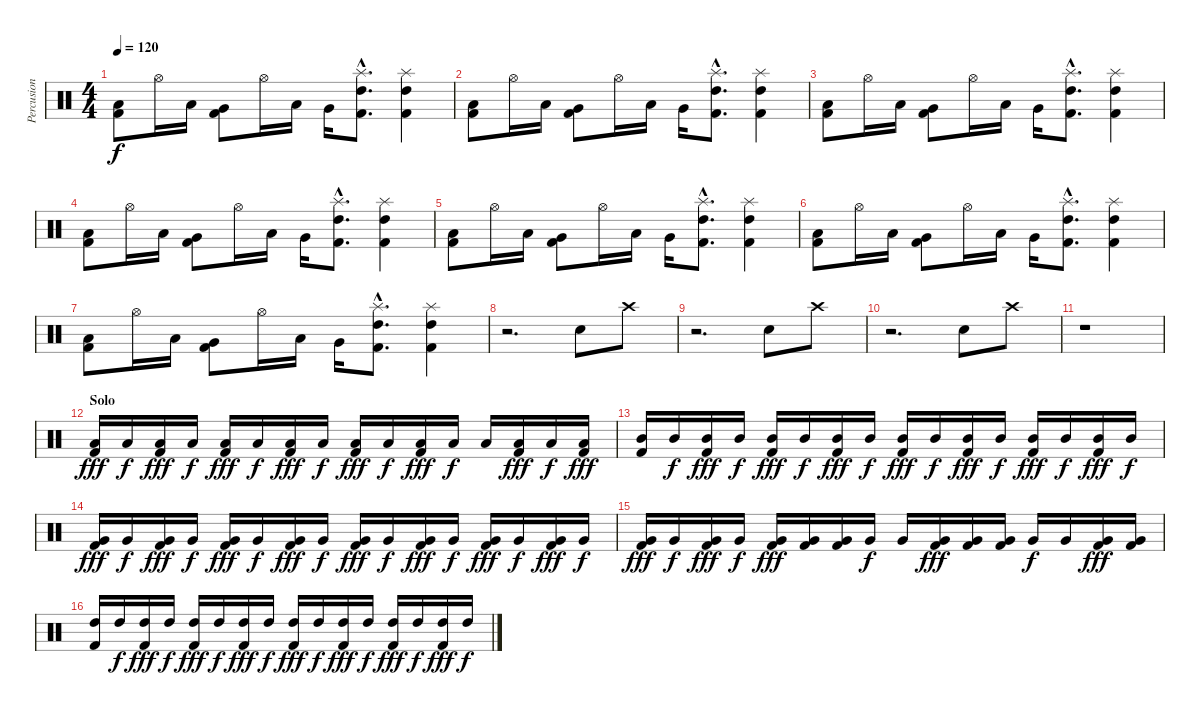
\track ("Percusion" "Percusion") {instrument percussion}
\staff {score}
\articulation defaults
\ts (4 4)
\tempo 120
\clef neutral
\ks c
("Low Tom (hit)" "Kick (hit) 2").8{dy f} "Hi-Hat (open)".16 "Low Tom (hit)".16 ("Very Low Tom (hit)" "Kick (hit) 2").8 "Hi-Hat (open)".16 "Low Tom (hit)".16 "Very Low Tom (hit)".16 ("High Tom (hit)"{hac} "Splash (hit)"{hac} "Kick (hit) 2"{hac}).8{d} ("High Tom (hit)" "Splash (hit)" "Kick (hit) 2").4 |
("Low Tom (hit)" "Kick (hit) 2").8 "Hi-Hat (open)".16 "Low Tom (hit)".16 ("Very Low Tom (hit)" "Kick (hit) 2").8 "Hi-Hat (open)".16 "Low Tom (hit)".16 "Very Low Tom (hit)".16 ("High Tom (hit)"{hac} "Splash (hit)"{hac} "Kick (hit) 2"{hac}).8{d} ("High Tom (hit)" "Splash (hit)" "Kick (hit) 2").4 |
("Low Tom (hit)" "Kick (hit) 2").8 "Hi-Hat (open)".16 "Low Tom (hit)".16 ("Very Low Tom (hit)" "Kick (hit) 2").8 "Hi-Hat (open)".16 "Low Tom (hit)".16 "Very Low Tom (hit)".16 ("High Tom (hit)"{hac} "Splash (hit)"{hac} "Kick (hit) 2"{hac}).8{d} ("High Tom (hit)" "Splash (hit)" "Kick (hit) 2").4 |
("Low Tom (hit)" "Kick (hit) 2").8 "Hi-Hat (open)".16 "Low Tom (hit)".16 ("Very Low Tom (hit)" "Kick (hit) 2").8 "Hi-Hat (open)".16 "Low Tom (hit)".16 "Very Low Tom (hit)".16 ("High Tom (hit)"{hac} "Splash (hit)"{hac} "Kick (hit) 2"{hac}).8{d} ("High Tom (hit)" "Splash (hit)" "Kick (hit) 2").4 |
("Low Tom (hit)" "Kick (hit) 2").8 "Hi-Hat (open)".16 "Low Tom (hit)".16 ("Very Low Tom (hit)" "Kick (hit) 2").8 "Hi-Hat (open)".16 "Low Tom (hit)".16 "Very Low Tom (hit)".16 ("High Tom (hit)"{hac} "Splash (hit)"{hac} "Kick (hit) 2"{hac}).8{d} ("High Tom (hit)" "Splash (hit)" "Kick (hit) 2").4 |
("Low Tom (hit)" "Kick (hit) 2").8 "Hi-Hat (open)".16 "Low Tom (hit)".16 ("Very Low Tom (hit)" "Kick (hit) 2").8 "Hi-Hat (open)".16 "Low Tom (hit)".16 "Very Low Tom (hit)".16 ("High Tom (hit)"{hac} "Splash (hit)"{hac} "Kick (hit) 2"{hac}).8{d} ("High Tom (hit)" "Splash (hit)" "Kick (hit) 2").4 |
("Low Tom (hit)" "Kick (hit) 2").8 "Hi-Hat (open)".16 "Low Tom (hit)".16 ("Very Low Tom (hit)" "Kick (hit) 2").8 "Hi-Hat (open)".16 "Low Tom (hit)".16 "Very Low Tom (hit)".16 ("High Tom (hit)"{hac} "Splash (hit)"{hac} "Kick (hit) 2"{hac}).8{d} ("High Tom (hit)" "Splash (hit)" "Kick (hit) 2").4 |
r.2{d} "Snare (hit) 2".8 "Crash high (hit)".8 |
r.2{d} "Snare (hit) 2".8 "Crash high (hit)".8 |
r.2{d} "Snare (hit) 2".8 "Crash high (hit)".8 |
r.1 |
\section ("" "Solo")
("Low Tom (hit)" "Kick (hit) 2").16{dy fff} "Low Tom (hit)".16{dy f} ("Low Tom (hit)" "Kick (hit) 2").16{dy fff} "Low Tom (hit)".16{dy f} ("Low Tom (hit)" "Kick (hit) 2").16{dy fff} "Low Tom (hit)".16{dy f} ("Low Tom (hit)" "Kick (hit) 2").16{dy fff} "Low Tom (hit)".16{dy f} ("Low Tom (hit)" "Kick (hit) 2").16{dy fff} "Low Tom (hit)".16{dy f} ("Low Tom (hit)" "Kick (hit) 2").16{dy fff} "Low Tom (hit)".16{dy f} "Low Tom (hit)".16 ("Low Tom (hit)" "Kick (hit) 2").16{dy fff} "Low Tom (hit)".16{dy f} ("Low Tom (hit)" "Kick (hit) 2").16{dy fff} |
("Mid Tom (hit)" "Kick (hit) 2").16 "Mid Tom (hit)".16{dy f} ("Mid Tom (hit)" "Kick (hit) 2").16{dy fff} "Mid Tom (hit)".16{dy f} ("Mid Tom (hit)" "Kick (hit) 2").16{dy fff} "Mid Tom (hit)".16{dy f} ("Mid Tom (hit)" "Kick (hit) 2").16{dy fff} "Mid Tom (hit)".16{dy f} ("Mid Tom (hit)" "Kick (hit) 2").16{dy fff} "Mid Tom (hit)".16{dy f} ("Mid Tom (hit)" "Kick (hit) 2").16{dy fff} "Mid Tom (hit)".16{dy f} ("Mid Tom (hit)" "Kick (hit) 2").16{dy fff} "Mid Tom (hit)".16{dy f} ("Mid Tom (hit)" "Kick (hit) 2").16{dy fff} "Mid Tom (hit)".16{dy f} |
("Very Low Tom (hit)" "Kick (hit) 2").16{dy fff} "Very Low Tom (hit)".16{dy f} ("Very Low Tom (hit)" "Kick (hit) 2").16{dy fff} "Very Low Tom (hit)".16{dy f} ("Very Low Tom (hit)" "Kick (hit) 2").16{dy fff} "Very Low Tom (hit)".16{dy f} ("Very Low Tom (hit)" "Kick (hit) 2").16{dy fff} "Very Low Tom (hit)".16{dy f} ("Very Low Tom (hit)" "Kick (hit) 2").16{dy fff} "Very Low Tom (hit)".16{dy f} ("Very Low Tom (hit)" "Kick (hit) 2").16{dy fff} "Very Low Tom (hit)".16{dy f} ("Very Low Tom (hit)" "Kick (hit) 2").16{dy fff} "Very Low Tom (hit)".16{dy f} ("Very Low Tom (hit)" "Kick (hit) 2").16{dy fff} "Very Low Tom (hit)".16{dy f} |
("Very Low Tom (hit)" "Kick (hit) 2").16{dy fff} "Very Low Tom (hit)".16{dy f} ("Very Low Tom (hit)" "Kick (hit) 2").16{dy fff} "Very Low Tom (hit)".16{dy f} ("Very Low Tom (hit)" "Kick (hit) 2").16{dy fff} ("Very Low Tom (hit)" "Kick (hit) 2").16 ("Very Low Tom (hit)" "Kick (hit) 2").16 "Very Low Tom (hit)".16{dy f} "Very Low Tom (hit)".16 ("Very Low Tom (hit)" "Kick (hit) 2").16{dy fff} ("Very Low Tom (hit)" "Kick (hit) 2").16 ("Very Low Tom (hit)" "Kick (hit) 2").16 "Very Low Tom (hit)".16{dy f} "Very Low Tom (hit)".16 ("Very Low Tom (hit)" "Kick (hit) 2").16{dy fff} ("Very Low Tom (hit)" "Kick (hit) 2").16 |
("High Tom (hit)" "Kick (hit) 2").16 "High Tom (hit)".16{dy f} ("High Tom (hit)" "Kick (hit) 2").16{dy fff} "High Tom (hit)".16{dy f} ("High Tom (hit)" "Kick (hit) 2").16{dy fff} "High Tom (hit)".16{dy f} ("High Tom (hit)" "Kick (hit) 2").16{dy fff} "High Tom (hit)".16{dy f} ("High Tom (hit)" "Kick (hit) 2").16{dy fff} "High Tom (hit)".16{dy f} ("High Tom (hit)" "Kick (hit) 2").16{dy fff} "High Tom (hit)".16{dy f} ("High Tom (hit)" "Kick (hit) 2").16{dy fff} "High Tom (hit)".16{dy f} ("High Tom (hit)" "Kick (hit) 2").16{dy fff} "High Tom (hit)".16{dy f}
